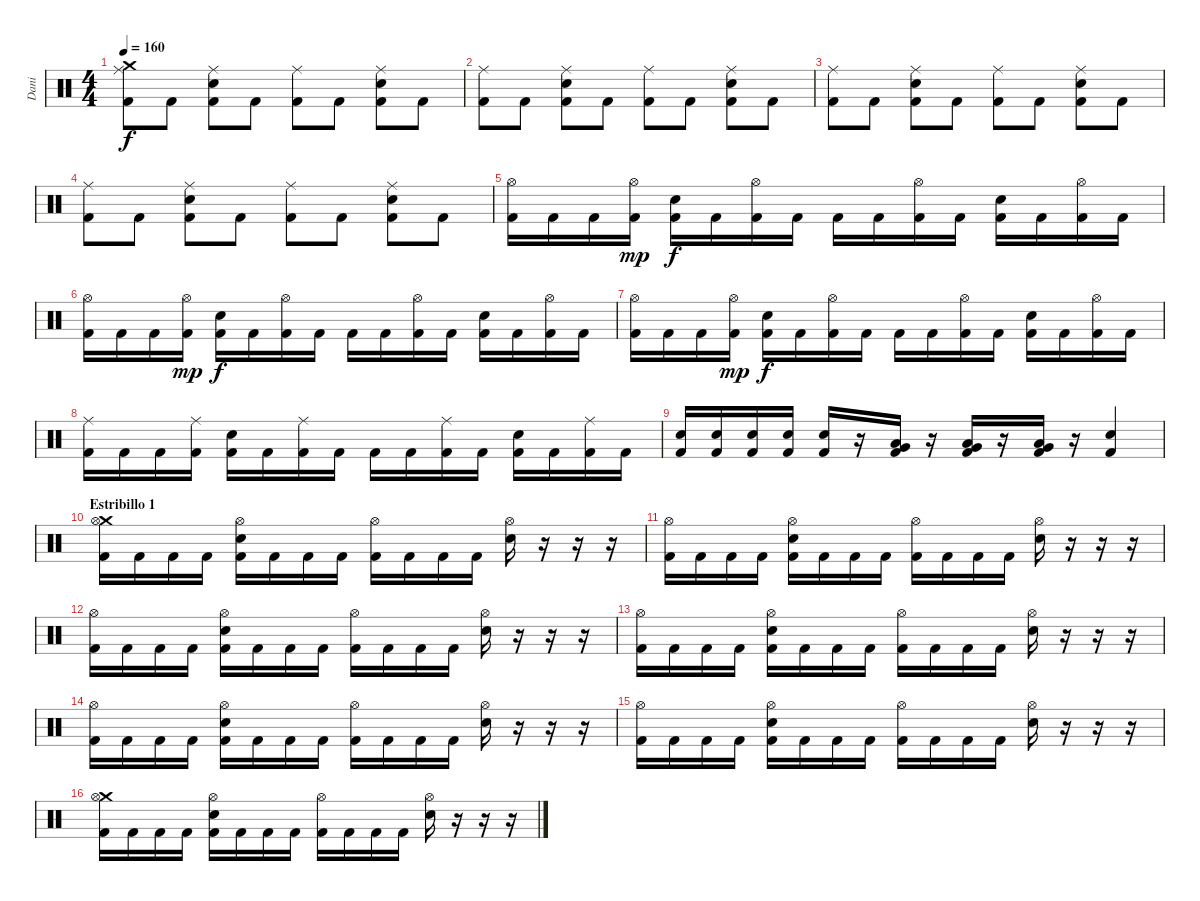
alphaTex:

\track ("Dani" "Dani") {instrument percussion}
\staff {score}
\articulation defaults
\ts (4 4)
\tempo 160
\clef neutral
\ks c
("Crash medium (hit)" "Ride (middle)" "Kick (hit) 2").8{dy f} "Kick (hit) 2".8 ("Ride (middle)" "Electric Snare (hit)" "Kick (hit) 2").8 "Kick (hit) 2".8 ("Ride (middle)" "Kick (hit) 2").8 "Kick (hit) 2".8 ("Ride (middle)" "Electric Snare (hit)" "Kick (hit) 2").8 "Kick (hit) 2".8 |
("Ride (middle)" "Kick (hit) 2").8 "Kick (hit) 2".8 ("Ride (middle)" "Electric Snare (hit)" "Kick (hit) 2").8 "Kick (hit) 2".8 ("Ride (middle)" "Kick (hit) 2").8 "Kick (hit) 2".8 ("Ride (middle)" "Electric Snare (hit)" "Kick (hit) 2").8 "Kick (hit) 2".8 |
("Ride (middle)" "Kick (hit) 2").8 "Kick (hit) 2".8 ("Ride (middle)" "Electric Snare (hit)" "Kick (hit) 2").8 "Kick (hit) 2".8 ("Ride (middle)" "Kick (hit) 2").8 "Kick (hit) 2".8 ("Ride (middle)" "Electric Snare (hit)" "Kick (hit) 2").8 "Kick (hit) 2".8 |
("Ride (middle)" "Kick (hit) 2").8 "Kick (hit) 2".8 ("Ride (middle)" "Electric Snare (hit)" "Kick (hit) 2").8 "Kick (hit) 2".8 ("Ride (middle)" "Kick (hit) 2").8 "Kick (hit) 2".8 ("Ride (middle)" "Electric Snare (hit)" "Kick (hit) 2").8 "Kick (hit) 2".8 |
("Hi-Hat (open)" "Kick (hit) 2").16 "Kick (hit) 2".16 "Kick (hit) 2".16 ("Hi-Hat (open)" "Kick (hit) 2").16{dy mp} ("Electric Snare (hit)" "Kick (hit) 2").16{dy f} "Kick (hit) 2".16 ("Hi-Hat (open)" "Kick (hit) 2").16 "Kick (hit) 2".16 "Kick (hit) 2".16 "Kick (hit) 2".16 ("Hi-Hat (open)" "Kick (hit) 2").16 "Kick (hit) 2".16 ("Electric Snare (hit)" "Kick (hit) 2").16 "Kick (hit) 2".16 ("Hi-Hat (open)" "Kick (hit) 2").16 "Kick (hit) 2".16 |
("Hi-Hat (open)" "Kick (hit) 2").16 "Kick (hit) 2".16 "Kick (hit) 2".16 ("Hi-Hat (open)" "Kick (hit) 2").16{dy mp} ("Electric Snare (hit)" "Kick (hit) 2").16{dy f} "Kick (hit) 2".16 ("Hi-Hat (open)" "Kick (hit) 2").16 "Kick (hit) 2".16 "Kick (hit) 2".16 "Kick (hit) 2".16 ("Hi-Hat (open)" "Kick (hit) 2").16 "Kick (hit) 2".16 ("Electric Snare (hit)" "Kick (hit) 2").16 "Kick (hit) 2".16 ("Hi-Hat (open)" "Kick (hit) 2").16 "Kick (hit) 2".16 |
("Hi-Hat (open)" "Kick (hit) 2").16 "Kick (hit) 2".16 "Kick (hit) 2".16 ("Hi-Hat (open)" "Kick (hit) 2").16{dy mp} ("Electric Snare (hit)" "Kick (hit) 2").16{dy f} "Kick (hit) 2".16 ("Hi-Hat (open)" "Kick (hit) 2").16 "Kick (hit) 2".16 "Kick (hit) 2".16 "Kick (hit) 2".16 ("Hi-Hat (open)" "Kick (hit) 2").16 "Kick (hit) 2".16 ("Electric Snare (hit)" "Kick (hit) 2").16 "Kick (hit) 2".16 ("Hi-Hat (open)" "Kick (hit) 2").16 "Kick (hit) 2".16 |
("Ride (middle)" "Kick (hit) 2").16 "Kick (hit) 2".16 "Kick (hit) 2".16 ("Ride (middle)" "Kick (hit) 2").16 ("Electric Snare (hit)" "Kick (hit) 2").16 "Kick (hit) 2".16 ("Ride (middle)" "Kick (hit) 2").16 "Kick (hit) 2".16 "Kick (hit) 2".16 "Kick (hit) 2".16 ("Ride (middle)" "Kick (hit) 2").16 "Kick (hit) 2".16 ("Electric Snare (hit)" "Kick (hit) 2").16 "Kick (hit) 2".16 ("Ride (middle)" "Kick (hit) 2").16 "Kick (hit) 2".16 |
("Electric Snare (hit)" "Kick (hit) 2").16 ("Electric Snare (hit)" "Kick (hit) 2").16 ("Electric Snare (hit)" "Kick (hit) 2").16 ("Electric Snare (hit)" "Kick (hit) 2").16 ("Electric Snare (hit)" "Kick (hit) 2").16 r.16 ("Low Floor Tom (hit)" "Very Low Tom (hit)" "Kick (hit) 2").16 r.16 ("Low Floor Tom (hit)" "Very Low Tom (hit)" "Kick (hit) 2").16 r.16 ("Low Floor Tom (hit)" "Very Low Tom (hit)" "Kick (hit) 2").16 r.16 ("Electric Snare (hit)" "Kick (hit) 2").4 |
\section ("" "Estribillo 1")
("Crash medium (hit)" "Hi-Hat (open)" "Kick (hit) 2").16 "Kick (hit) 2".16 "Kick (hit) 2".16 "Kick (hit) 2".16 ("Hi-Hat (open)" "Electric Snare (hit)" "Kick (hit) 2").16 "Kick (hit) 2".16 "Kick (hit) 2".16 "Kick (hit) 2".16 ("Hi-Hat (open)" "Kick (hit) 2").16 "Kick (hit) 2".16 "Kick (hit) 2".16 "Kick (hit) 2".16 ("Hi-Hat (open)" "Electric Snare (hit)").16 r.16 r.16 r.16 |
("Hi-Hat (open)" "Kick (hit) 2").16 "Kick (hit) 2".16 "Kick (hit) 2".16 "Kick (hit) 2".16 ("Hi-Hat (open)" "Electric Snare (hit)" "Kick (hit) 2").16 "Kick (hit) 2".16 "Kick (hit) 2".16 "Kick (hit) 2".16 ("Hi-Hat (open)" "Kick (hit) 2").16 "Kick (hit) 2".16 "Kick (hit) 2".16 "Kick (hit) 2".16 ("Hi-Hat (open)" "Electric Snare (hit)").16 r.16 r.16 r.16 |
("Hi-Hat (open)" "Kick (hit) 2").16 "Kick (hit) 2".16 "Kick (hit) 2".16 "Kick (hit) 2".16 ("Hi-Hat (open)" "Electric Snare (hit)" "Kick (hit) 2").16 "Kick (hit) 2".16 "Kick (hit) 2".16 "Kick (hit) 2".16 ("Hi-Hat (open)" "Kick (hit) 2").16 "Kick (hit) 2".16 "Kick (hit) 2".16 "Kick (hit) 2".16 ("Hi-Hat (open)" "Electric Snare (hit)").16 r.16 r.16 r.16 |
("Hi-Hat (open)" "Kick (hit) 2").16 "Kick (hit) 2".16 "Kick (hit) 2".16 "Kick (hit) 2".16 ("Hi-Hat (open)" "Electric Snare (hit)" "Kick (hit) 2").16 "Kick (hit) 2".16 "Kick (hit) 2".16 "Kick (hit) 2".16 ("Hi-Hat (open)" "Kick (hit) 2").16 "Kick (hit) 2".16 "Kick (hit) 2".16 "Kick (hit) 2".16 ("Hi-Hat (open)" "Electric Snare (hit)").16 r.16 r.16 r.16 |
("Hi-Hat (open)" "Kick (hit) 2").16 "Kick (hit) 2".16 "Kick (hit) 2".16 "Kick (hit) 2".16 ("Hi-Hat (open)" "Electric Snare (hit)" "Kick (hit) 2").16 "Kick (hit) 2".16 "Kick (hit) 2".16 "Kick (hit) 2".16 ("Hi-Hat (open)" "Kick (hit) 2").16 "Kick (hit) 2".16 "Kick (hit) 2".16 "Kick (hit) 2".16 ("Hi-Hat (open)" "Electric Snare (hit)").16 r.16 r.16 r.16 |
("Hi-Hat (open)" "Kick (hit) 2").16 "Kick (hit) 2".16 "Kick (hit) 2".16 "Kick (hit) 2".16 ("Hi-Hat (open)" "Electric Snare (hit)" "Kick (hit) 2").16 "Kick (hit) 2".16 "Kick (hit) 2".16 "Kick (hit) 2".16 ("Hi-Hat (open)" "Kick (hit) 2").16 "Kick (hit) 2".16 "Kick (hit) 2".16 "Kick (hit) 2".16 ("Hi-Hat (open)" "Electric Snare (hit)").16 r.16 r.16 r.16 |
("Crash medium (hit)" "Hi-Hat (open)" "Kick (hit) 2").16 "Kick (hit) 2".16 "Kick (hit) 2".16 "Kick (hit) 2".16 ("Hi-Hat (open)" "Electric Snare (hit)" "Kick (hit) 2").16 "Kick (hit) 2".16 "Kick (hit) 2".16 "Kick (hit) 2".16 ("Hi-Hat (open)" "Kick (hit) 2").16 "Kick (hit) 2".16 "Kick (hit) 2".16 "Kick (hit) 2".16 ("Hi-Hat (open)" "Electric Snare (hit)").16 r.16 r.16 r.16
